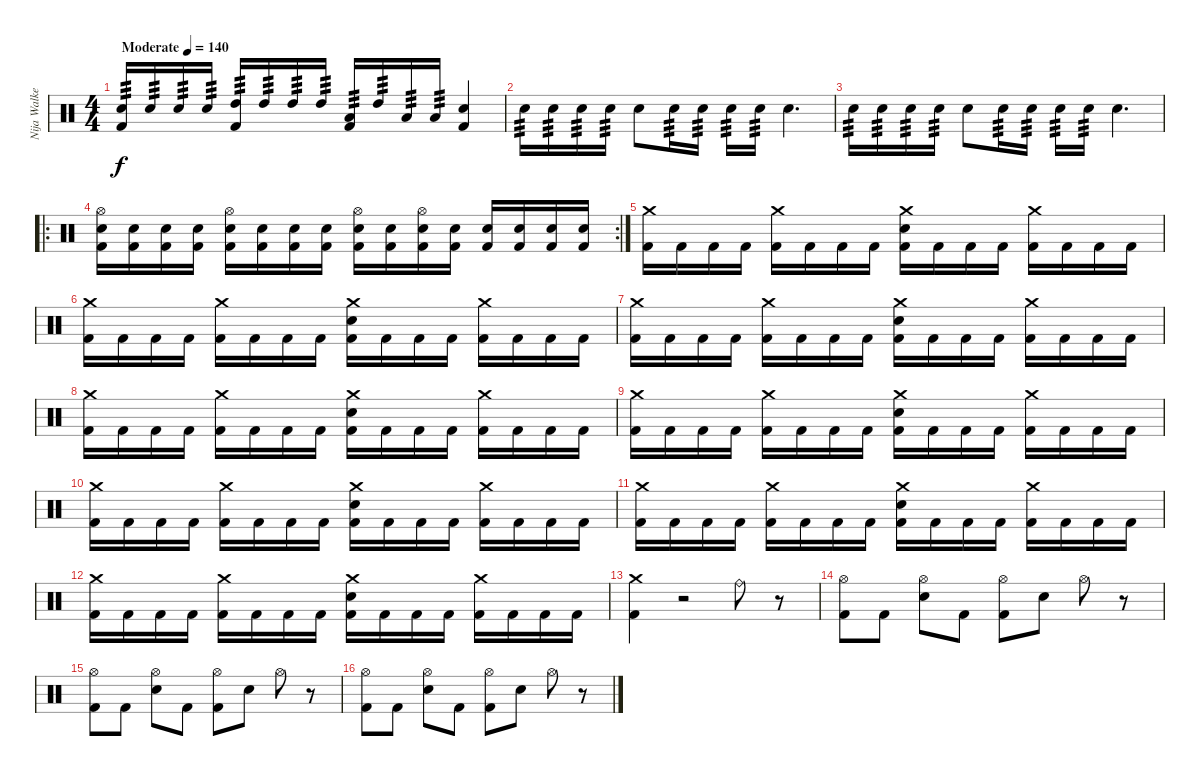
\track ("Nija Walker" "Nija Walke") {instrument percussion bank 151}
\staff {score}
\articulation defaults
\ts (4 4)
\tempo (140 "Moderate")
\clef neutral
\ks c
("Electric Snare (hit)" "Kick (hit) 2").16{tp 3 dy f} "Electric Snare (hit)".16{tp 3} "Electric Snare (hit)".16{tp 3} "Electric Snare (hit)".16{tp 3} ("High Tom (hit)" "Kick (hit) 2").16{tp 3} "High Tom (hit)".16{tp 3} "High Tom (hit)".16{tp 3} "High Tom (hit)".16{tp 3} ("Low Tom (hit)" "Kick (hit) 2").16{tp 3} "High Tom (hit)".16{tp 3} "Low Tom (hit)".16{tp 3} "Low Tom (hit)".16{tp 3} ("Electric Snare (hit)" "Kick (hit) 2").4 |
"Electric Snare (hit)".16{tp 3} "Electric Snare (hit)".16{tp 3} "Electric Snare (hit)".16{tp 3} "Electric Snare (hit)".16{tp 3} "Electric Snare (hit)".8 "Electric Snare (hit)".16{tp 3} "Electric Snare (hit)".16{tp 3} "Electric Snare (hit)".16{tp 3} "Electric Snare (hit)".16{tp 3} "Electric Snare (hit)".4{d} |
"Electric Snare (hit)".16{tp 3} "Electric Snare (hit)".16{tp 3} "Electric Snare (hit)".16{tp 3} "Electric Snare (hit)".16{tp 3} "Electric Snare (hit)".8 "Electric Snare (hit)".16{tp 3} "Electric Snare (hit)".16{tp 3} "Electric Snare (hit)".16{tp 3} "Electric Snare (hit)".16{tp 3} "Electric Snare (hit)".4{d} |
\ro
\rc 2
("Hi-Hat (open)" "Electric Snare (hit)" "Kick (hit) 2").16 ("Electric Snare (hit)" "Kick (hit) 2").16 ("Electric Snare (hit)" "Kick (hit) 2").16 ("Electric Snare (hit)" "Kick (hit) 2").16 ("Hi-Hat (open)" "Electric Snare (hit)" "Kick (hit) 2").16 ("Electric Snare (hit)" "Kick (hit) 2").16 ("Electric Snare (hit)" "Kick (hit) 2").16 ("Electric Snare (hit)" "Kick (hit) 2").16 ("Hi-Hat (open)" "Electric Snare (hit)" "Kick (hit) 2").16 ("Electric Snare (hit)" "Kick (hit) 2").16 ("Hi-Hat (open)" "Electric Snare (hit)" "Kick (hit) 2").16 ("Electric Snare (hit)" "Kick (hit) 2").16 ("Electric Snare (hit)" "Kick (hit) 2").16 ("Electric Snare (hit)" "Kick (hit) 2").16 ("Electric Snare (hit)" "Kick (hit) 2").16 ("Electric Snare (hit)" "Kick (hit) 2").16 |
("Crash medium (hit)" "Kick (hit) 2").16 "Kick (hit) 2".16 "Kick (hit) 2".16 "Kick (hit) 2".16 ("Crash medium (hit)" "Kick (hit) 2").16 "Kick (hit) 2".16 "Kick (hit) 2".16 "Kick (hit) 2".16 ("Crash medium (hit)" "Electric Snare (hit)" "Kick (hit) 2").16 "Kick (hit) 2".16 "Kick (hit) 2".16 "Kick (hit) 2".16 ("Crash medium (hit)" "Kick (hit) 2").16 "Kick (hit) 2".16 "Kick (hit) 2".16 "Kick (hit) 2".16 |
("Crash medium (hit)" "Kick (hit) 2").16 "Kick (hit) 2".16 "Kick (hit) 2".16 "Kick (hit) 2".16 ("Crash medium (hit)" "Kick (hit) 2").16 "Kick (hit) 2".16 "Kick (hit) 2".16 "Kick (hit) 2".16 ("Crash medium (hit)" "Electric Snare (hit)" "Kick (hit) 2").16 "Kick (hit) 2".16 "Kick (hit) 2".16 "Kick (hit) 2".16 ("Crash medium (hit)" "Kick (hit) 2").16 "Kick (hit) 2".16 "Kick (hit) 2".16 "Kick (hit) 2".16 |
("Crash medium (hit)" "Kick (hit) 2").16 "Kick (hit) 2".16 "Kick (hit) 2".16 "Kick (hit) 2".16 ("Crash medium (hit)" "Kick (hit) 2").16 "Kick (hit) 2".16 "Kick (hit) 2".16 "Kick (hit) 2".16 ("Crash medium (hit)" "Electric Snare (hit)" "Kick (hit) 2").16 "Kick (hit) 2".16 "Kick (hit) 2".16 "Kick (hit) 2".16 ("Crash medium (hit)" "Kick (hit) 2").16 "Kick (hit) 2".16 "Kick (hit) 2".16 "Kick (hit) 2".16 |
("Crash medium (hit)" "Kick (hit) 2").16 "Kick (hit) 2".16 "Kick (hit) 2".16 "Kick (hit) 2".16 ("Crash medium (hit)" "Kick (hit) 2").16 "Kick (hit) 2".16 "Kick (hit) 2".16 "Kick (hit) 2".16 ("Crash medium (hit)" "Electric Snare (hit)" "Kick (hit) 2").16 "Kick (hit) 2".16 "Kick (hit) 2".16 "Kick (hit) 2".16 ("Crash medium (hit)" "Kick (hit) 2").16 "Kick (hit) 2".16 "Kick (hit) 2".16 "Kick (hit) 2".16 |
("Crash medium (hit)" "Kick (hit) 2").16 "Kick (hit) 2".16 "Kick (hit) 2".16 "Kick (hit) 2".16 ("Crash medium (hit)" "Kick (hit) 2").16 "Kick (hit) 2".16 "Kick (hit) 2".16 "Kick (hit) 2".16 ("Crash medium (hit)" "Electric Snare (hit)" "Kick (hit) 2").16 "Kick (hit) 2".16 "Kick (hit) 2".16 "Kick (hit) 2".16 ("Crash medium (hit)" "Kick (hit) 2").16 "Kick (hit) 2".16 "Kick (hit) 2".16 "Kick (hit) 2".16 |
("Crash medium (hit)" "Kick (hit) 2").16 "Kick (hit) 2".16 "Kick (hit) 2".16 "Kick (hit) 2".16 ("Crash medium (hit)" "Kick (hit) 2").16 "Kick (hit) 2".16 "Kick (hit) 2".16 "Kick (hit) 2".16 ("Crash medium (hit)" "Electric Snare (hit)" "Kick (hit) 2").16 "Kick (hit) 2".16 "Kick (hit) 2".16 "Kick (hit) 2".16 ("Crash medium (hit)" "Kick (hit) 2").16 "Kick (hit) 2".16 "Kick (hit) 2".16 "Kick (hit) 2".16 |
("Crash medium (hit)" "Kick (hit) 2").16 "Kick (hit) 2".16 "Kick (hit) 2".16 "Kick (hit) 2".16 ("Crash medium (hit)" "Kick (hit) 2").16 "Kick (hit) 2".16 "Kick (hit) 2".16 "Kick (hit) 2".16 ("Crash medium (hit)" "Electric Snare (hit)" "Kick (hit) 2").16 "Kick (hit) 2".16 "Kick (hit) 2".16 "Kick (hit) 2".16 ("Crash medium (hit)" "Kick (hit) 2").16 "Kick (hit) 2".16 "Kick (hit) 2".16 "Kick (hit) 2".16 |
("Crash medium (hit)" "Kick (hit) 2").16 "Kick (hit) 2".16 "Kick (hit) 2".16 "Kick (hit) 2".16 ("Crash medium (hit)" "Kick (hit) 2").16 "Kick (hit) 2".16 "Kick (hit) 2".16 "Kick (hit) 2".16 ("Crash medium (hit)" "Electric Snare (hit)" "Kick (hit) 2").16 "Kick (hit) 2".16 "Kick (hit) 2".16 "Kick (hit) 2".16 ("Crash medium (hit)" "Kick (hit) 2").16 "Kick (hit) 2".16 "Kick (hit) 2".16 "Kick (hit) 2".16 |
("Crash medium (hit)" "Kick (hit) 2").4 r.2 "Ride (bell)".8 r.8 |
("Hi-Hat (open)" "Kick (hit) 2").8 "Kick (hit) 2".8 ("Hi-Hat (open)" "Electric Snare (hit)").8 "Kick (hit) 2".8 ("Hi-Hat (open)" "Kick (hit) 2").8 "Electric Snare (hit)".8 "Hi-Hat (open)".8 r.8 |
("Hi-Hat (open)" "Kick (hit) 2").8 "Kick (hit) 2".8 ("Hi-Hat (open)" "Electric Snare (hit)").8 "Kick (hit) 2".8 ("Hi-Hat (open)" "Kick (hit) 2").8 "Electric Snare (hit)".8 "Hi-Hat (open)".8 r.8 |
("Hi-Hat (open)" "Kick (hit) 2").8 "Kick (hit) 2".8 ("Hi-Hat (open)" "Electric Snare (hit)").8 "Kick (hit) 2".8 ("Hi-Hat (open)" "Kick (hit) 2").8 "Electric Snare (hit)".8 "Hi-Hat (open)".8 r.8
